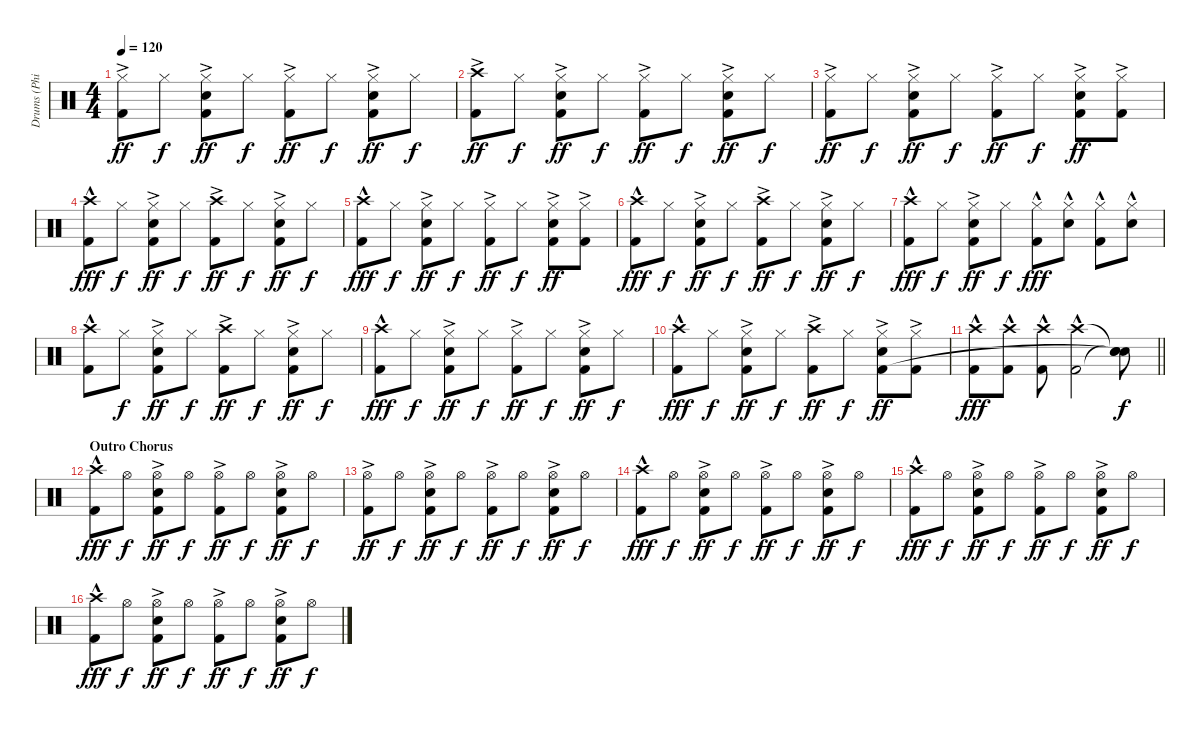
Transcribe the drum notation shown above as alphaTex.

\track ("Drums (Phil Rudd)" "Drums (Phi") {instrument percussion}
\staff {score}
\articulation defaults
\ts (4 4)
\tempo 120
\clef neutral
\ks c
("Hi-Hat (closed)"{ac} "Kick (hit) 2").8{dy ff} "Hi-Hat (closed)".8{dy f} ("Kick (hit) 2" "Snare (hit) 2" "Hi-Hat (closed)"{ac}).8{dy ff} "Hi-Hat (closed)".8{dy f} ("Kick (hit) 2" "Hi-Hat (closed)"{ac}).8{dy ff} "Hi-Hat (closed)".8{dy f} ("Kick (hit) 2" "Snare (hit) 2" "Hi-Hat (closed)"{ac}).8{dy ff} "Hi-Hat (closed)".8{dy f} |
("Kick (hit) 2" "Crash high (hit)"{ac}).8{dy ff} "Hi-Hat (closed)".8{dy f} ("Kick (hit) 2" "Snare (hit) 2" "Hi-Hat (closed)"{ac}).8{dy ff} "Hi-Hat (closed)".8{dy f} ("Hi-Hat (closed)"{ac} "Kick (hit) 2").8{dy ff} "Hi-Hat (closed)".8{dy f} ("Kick (hit) 2" "Snare (hit) 2" "Hi-Hat (closed)"{ac}).8{dy ff} "Hi-Hat (closed)".8{dy f} |
("Hi-Hat (closed)"{ac} "Kick (hit) 2").8{dy ff} "Hi-Hat (closed)".8{dy f} ("Kick (hit) 2" "Snare (hit) 2" "Hi-Hat (closed)"{ac}).8{dy ff} "Hi-Hat (closed)".8{dy f} ("Kick (hit) 2" "Hi-Hat (closed)"{ac}).8{dy ff} "Hi-Hat (closed)".8{dy f} ("Kick (hit) 2" "Snare (hit) 2" "Hi-Hat (closed)"{ac}).8{dy ff} ("Hi-Hat (closed)"{ac} "Kick (hit) 2").8 |
("Crash high (hit)"{hac} "Kick (hit) 2").8{dy fff} "Hi-Hat (closed)".8{dy f} ("Snare (hit) 2" "Hi-Hat (closed)"{ac} "Kick (hit) 2").8{dy ff} "Hi-Hat (closed)".8{dy f} ("Crash high (hit)"{ac} "Kick (hit) 2").8{dy ff} "Hi-Hat (closed)".8{dy f} ("Hi-Hat (closed)"{ac} "Snare (hit) 2" "Kick (hit) 2").8{dy ff} "Hi-Hat (closed)".8{dy f} |
("Crash high (hit)"{hac} "Kick (hit) 2").8{dy fff} "Hi-Hat (closed)".8{dy f} ("Snare (hit) 2"{ac} "Hi-Hat (closed)" "Kick (hit) 2").8{dy ff} "Hi-Hat (closed)".8{dy f} ("Hi-Hat (closed)"{ac} "Kick (hit) 2").8{dy ff} "Hi-Hat (closed)".8{dy f} ("Hi-Hat (closed)"{ac} "Snare (hit) 2" "Kick (hit) 2").8{dy ff} ("Hi-Hat (closed)"{ac} "Kick (hit) 2").8 |
("Crash high (hit)"{hac} "Kick (hit) 2").8{dy fff} "Hi-Hat (closed)".8{dy f} ("Snare (hit) 2"{ac} "Hi-Hat (closed)" "Kick (hit) 2").8{dy ff} "Hi-Hat (closed)".8{dy f} ("Crash high (hit)"{ac} "Kick (hit) 2").8{dy ff} "Hi-Hat (closed)".8{dy f} ("Hi-Hat (closed)"{ac} "Snare (hit) 2" "Kick (hit) 2").8{dy ff} "Hi-Hat (closed)".8{dy f} |
("Crash high (hit)"{hac} "Kick (hit) 2").8{dy fff} "Hi-Hat (closed)".8{dy f} ("Snare (hit) 2"{ac} "Hi-Hat (closed)" "Kick (hit) 2").8{dy ff} "Hi-Hat (closed)".8{dy f} ("Hi-Hat (closed)"{hac} "Kick (hit) 2").8{dy fff} ("Hi-Hat (closed)"{hac} "Snare (hit) 2").8 ("Hi-Hat (closed)"{hac} "Kick (hit) 2").8 ("Hi-Hat (closed)"{hac} "Snare (hit) 2").8 |
("Crash high (hit)"{hac} "Kick (hit) 2").8 "Hi-Hat (closed)".8{dy f} ("Snare (hit) 2"{ac} "Hi-Hat (closed)" "Kick (hit) 2").8{dy ff} "Hi-Hat (closed)".8{dy f} ("Crash high (hit)"{ac} "Kick (hit) 2").8{dy ff} "Hi-Hat (closed)".8{dy f} ("Hi-Hat (closed)"{ac} "Snare (hit) 2" "Kick (hit) 2").8{dy ff} "Hi-Hat (closed)".8{dy f} |
("Crash high (hit)"{hac} "Kick (hit) 2").8{dy fff} "Hi-Hat (closed)".8{dy f} ("Snare (hit) 2"{ac} "Hi-Hat (closed)" "Kick (hit) 2").8{dy ff} "Hi-Hat (closed)".8{dy f} ("Hi-Hat (closed)"{ac} "Kick (hit) 2").8{dy ff} "Hi-Hat (closed)".8{dy f} ("Hi-Hat (closed)"{ac} "Snare (hit) 2" "Kick (hit) 2").8{dy ff} "Hi-Hat (closed)".8{dy f} |
("Crash high (hit)"{hac} "Kick (hit) 2").8{dy fff} "Hi-Hat (closed)".8{dy f} ("Snare (hit) 2"{ac} "Hi-Hat (closed)" "Kick (hit) 2").8{dy ff} "Hi-Hat (closed)".8{dy f} ("Crash high (hit)"{ac} "Kick (hit) 2").8{dy ff} "Hi-Hat (closed)".8{dy f} ("Hi-Hat (closed)"{ac} "Snare (hit) 2" "Kick (hit) 2").8{dy ff} ("Hi-Hat (closed)"{ac} "Kick (hit) 2").8 |
\barLineRight lightlight
("Crash high (hit)"{hac} "Kick (hit) 2"{hac}).8{dy fff} ("Crash high (hit)"{hac} "Kick (hit) 2"{hac}).8 ("Crash high (hit)"{hac} "Kick (hit) 2"{hac}).8 ("Crash high (hit)"{hac} "Kick (hit) 2"{hac}).2 ("Snare (hit)"{t} "Snare (hit)"{t} "Snare (hit)"{t}).8{dy f} |
\section ("" "Outro Chorus")
("Crash high (hit)"{hac} "Kick (hit) 2").8{dy fff} "Hi-Hat (open)".8{dy f} ("Snare (hit) 2"{ac} "Hi-Hat (open)" "Kick (hit) 2").8{dy ff} "Hi-Hat (open)".8{dy f} ("Hi-Hat (open)"{ac} "Kick (hit) 2").8{dy ff} "Hi-Hat (open)".8{dy f} ("Hi-Hat (open)"{ac} "Snare (hit) 2" "Kick (hit) 2").8{dy ff} "Hi-Hat (open)".8{dy f} |
("Hi-Hat (open)"{ac} "Kick (hit) 2").8{dy ff} "Hi-Hat (open)".8{dy f} ("Snare (hit) 2"{ac} "Hi-Hat (open)" "Kick (hit) 2").8{dy ff} "Hi-Hat (open)".8{dy f} ("Hi-Hat (open)"{ac} "Kick (hit) 2").8{dy ff} "Hi-Hat (open)".8{dy f} ("Hi-Hat (open)"{ac} "Snare (hit) 2" "Kick (hit) 2").8{dy ff} "Hi-Hat (open)".8{dy f} |
("Crash high (hit)"{hac} "Kick (hit) 2").8{dy fff} "Hi-Hat (open)".8{dy f} ("Snare (hit) 2"{ac} "Hi-Hat (open)" "Kick (hit) 2").8{dy ff} "Hi-Hat (open)".8{dy f} ("Hi-Hat (open)"{ac} "Kick (hit) 2").8{dy ff} "Hi-Hat (open)".8{dy f} ("Hi-Hat (open)"{ac} "Snare (hit) 2" "Kick (hit) 2").8{dy ff} "Hi-Hat (open)".8{dy f} |
("Crash high (hit)"{hac} "Kick (hit) 2").8{dy fff} "Hi-Hat (open)".8{dy f} ("Snare (hit) 2"{ac} "Hi-Hat (open)" "Kick (hit) 2").8{dy ff} "Hi-Hat (open)".8{dy f} ("Hi-Hat (open)"{ac} "Kick (hit) 2").8{dy ff} "Hi-Hat (open)".8{dy f} ("Hi-Hat (open)"{ac} "Snare (hit) 2" "Kick (hit) 2").8{dy ff} "Hi-Hat (open)".8{dy f} |
("Crash high (hit)"{hac} "Kick (hit) 2").8{dy fff} "Hi-Hat (open)".8{dy f} ("Snare (hit) 2"{ac} "Hi-Hat (open)" "Kick (hit) 2").8{dy ff} "Hi-Hat (open)".8{dy f} ("Hi-Hat (open)"{ac} "Kick (hit) 2").8{dy ff} "Hi-Hat (open)".8{dy f} ("Hi-Hat (open)"{ac} "Snare (hit) 2" "Kick (hit) 2").8{dy ff} "Hi-Hat (open)".8{dy f}
